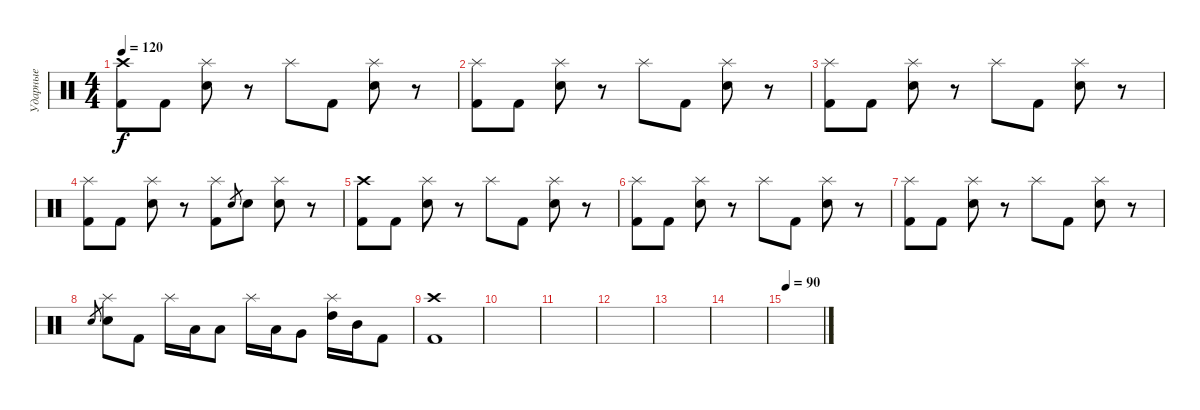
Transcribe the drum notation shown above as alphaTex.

\track ("Ударные" "Ударные") {instrument percussion}
\staff {score}
\articulation defaults
\ts (4 4)
\tempo 120
\clef neutral
\ks c
("Crash high (hit)" "Kick (hit) 2").8{dy f} "Kick (hit) 2".8 ("Splash (hit)" "Electric Snare (hit)").8 r.8 "Splash (hit)".8 "Kick (hit) 2".8 ("Splash (hit)" "Electric Snare (hit)").8 r.8 |
("Splash (hit)" "Kick (hit) 2").8 "Kick (hit) 2".8 ("Splash (hit)" "Electric Snare (hit)").8 r.8 "Splash (hit)".8 "Kick (hit) 2".8 ("Splash (hit)" "Electric Snare (hit)").8 r.8 |
("Splash (hit)" "Kick (hit) 2").8 "Kick (hit) 2".8 ("Splash (hit)" "Electric Snare (hit)").8 r.8 "Splash (hit)".8 "Kick (hit) 2".8 ("Splash (hit)" "Electric Snare (hit)").8 r.8 |
("Splash (hit)" "Kick (hit) 2").8 "Kick (hit) 2".8 ("Splash (hit)" "Electric Snare (hit)").8 r.8 ("Splash (hit)" "Kick (hit) 2").8 "Electric Snare (hit)".8{gr} "Electric Snare (hit)".8 ("Splash (hit)" "Electric Snare (hit)").8 r.8 |
("Crash high (hit)" "Kick (hit) 2").8 "Kick (hit) 2".8 ("Splash (hit)" "Electric Snare (hit)").8 r.8 "Splash (hit)".8 "Kick (hit) 2".8 ("Splash (hit)" "Electric Snare (hit)").8 r.8 |
("Splash (hit)" "Kick (hit) 2").8 "Kick (hit) 2".8 ("Splash (hit)" "Electric Snare (hit)").8 r.8 "Splash (hit)".8 "Kick (hit) 2".8 ("Splash (hit)" "Electric Snare (hit)").8 r.8 |
("Splash (hit)" "Kick (hit) 2").8 "Kick (hit) 2".8 ("Splash (hit)" "Electric Snare (hit)").8 r.8 "Splash (hit)".8 "Kick (hit) 2".8 ("Splash (hit)" "Electric Snare (hit)").8 r.8 |
"Electric Snare (hit)".8{gr} ("Splash (hit)" "Electric Snare (hit)").8 "Kick (hit) 2".8 "Splash (hit)".16 "Low Floor Tom (hit)".16 "Low Floor Tom (hit)".8 "Splash (hit)".16 "Low Floor Tom (hit)".16 "Very Low Tom (hit)".8 ("Splash (hit)" "High Tom (hit)").16 "Mid Tom (hit)".16 "Kick (hit) 2".8 |
("Crash high (hit)" "Kick (hit) 2").1 |
|
|
|
|
|
\tempo 90
